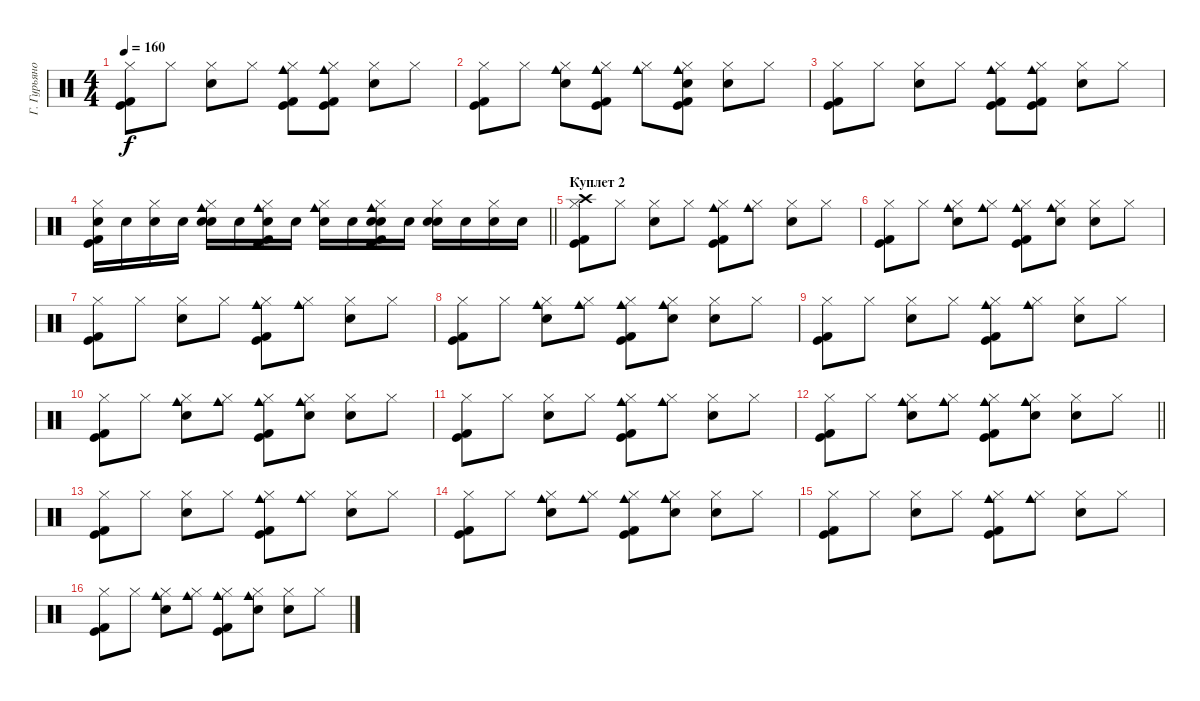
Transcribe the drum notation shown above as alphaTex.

\track ("Г. Гурьянов" "Г. Гурьяно") {instrument percussion}
\staff
\articulation defaults
\ts (4 4)
\tempo 160
\clef neutral
\ks c
("Hi-Hat (closed)" "Kick (hit)" "Kick (hit) 2").8{dy f} "Hi-Hat (closed)".8 ("Hi-Hat (closed)" "Snare (hit) 2").8 "Hi-Hat (closed)".8 ("Hi-Hat (closed)" "Cowbell medium (hit)" "Kick (hit)" "Kick (hit) 2").8 ("Hi-Hat (closed)" "Cowbell medium (hit)" "Kick (hit)" "Kick (hit) 2").8 ("Hi-Hat (closed)" "Snare (hit) 2").8 "Hi-Hat (closed)".8 |
("Hi-Hat (closed)" "Kick (hit)" "Kick (hit) 2").8 "Hi-Hat (closed)".8 ("Hi-Hat (closed)" "Cowbell medium (hit)" "Snare (hit) 2").8 ("Hi-Hat (closed)" "Cowbell medium (hit)" "Kick (hit)" "Kick (hit) 2").8 ("Hi-Hat (closed)" "Cowbell medium (hit)").8 ("Hi-Hat (closed)" "Cowbell medium (hit)" "Hand Clap (hit)" "Kick (hit)" "Kick (hit) 2").8 ("Hi-Hat (closed)" "Snare (hit) 2").8 "Hi-Hat (closed)".8 |
("Hi-Hat (closed)" "Kick (hit)" "Kick (hit) 2").8 "Hi-Hat (closed)".8 ("Hi-Hat (closed)" "Snare (hit) 2").8 "Hi-Hat (closed)".8 ("Hi-Hat (closed)" "Cowbell medium (hit)" "Kick (hit)" "Kick (hit) 2").8 ("Hi-Hat (closed)" "Cowbell medium (hit)" "Kick (hit)" "Kick (hit) 2").8 ("Hi-Hat (closed)" "Snare (hit) 2").8 "Hi-Hat (closed)".8 |
\barLineRight lightlight
("Hi-Hat (closed)" "Electric Snare (hit)" "Kick (hit)" "Kick (hit) 2").16 "Electric Snare (hit)".16 ("Hi-Hat (closed)" "Electric Snare (hit)").16 "Electric Snare (hit)".16 ("Hi-Hat (closed)" "Electric Snare (hit)" "Snare (hit) 2" "Cowbell medium (hit)").16 "Electric Snare (hit)".16 ("Hi-Hat (closed)" "Electric Snare (hit)" "Cowbell medium (hit)" "Kick (hit)" "Kick (hit) 2").16 "Electric Snare (hit)".16 ("Hi-Hat (closed)" "Electric Snare (hit)" "Cowbell medium (hit)").16 "Electric Snare (hit)".16 ("Hi-Hat (closed)" "Electric Snare (hit)" "Kick (hit)" "Cowbell medium (hit)" "Hand Clap (hit)" "Kick (hit) 2").16 "Electric Snare (hit)".16 ("Hi-Hat (closed)" "Electric Snare (hit)" "Snare (hit) 2").16 "Electric Snare (hit)".16 ("Hi-Hat (closed)" "Electric Snare (hit)").16 "Electric Snare (hit)".16 |
\section ("" "Куплет 2")
("Hi-Hat (closed)" "Crash high (hit)" "Kick (hit)" "Kick (hit) 2").8 "Hi-Hat (closed)".8 ("Hi-Hat (closed)" "Snare (hit) 2").8 "Hi-Hat (closed)".8 ("Hi-Hat (closed)" "Cowbell medium (hit)" "Kick (hit)" "Kick (hit) 2").8 ("Hi-Hat (closed)" "Cowbell medium (hit)").8 ("Hi-Hat (closed)" "Snare (hit) 2").8 "Hi-Hat (closed)".8 |
("Hi-Hat (closed)" "Kick (hit)" "Kick (hit) 2").8 "Hi-Hat (closed)".8 ("Hi-Hat (closed)" "Cowbell medium (hit)" "Snare (hit) 2").8 ("Hi-Hat (closed)" "Cowbell medium (hit)").8 ("Hi-Hat (closed)" "Cowbell medium (hit)" "Kick (hit)" "Kick (hit) 2").8 ("Hi-Hat (closed)" "Cowbell medium (hit)" "Hand Clap (hit)").8 ("Hi-Hat (closed)" "Snare (hit) 2").8 "Hi-Hat (closed)".8 |
("Hi-Hat (closed)" "Kick (hit)" "Kick (hit) 2").8 "Hi-Hat (closed)".8 ("Hi-Hat (closed)" "Snare (hit) 2").8 "Hi-Hat (closed)".8 ("Hi-Hat (closed)" "Cowbell medium (hit)" "Kick (hit)" "Kick (hit) 2").8 ("Hi-Hat (closed)" "Cowbell medium (hit)").8 ("Hi-Hat (closed)" "Snare (hit) 2").8 "Hi-Hat (closed)".8 |
("Hi-Hat (closed)" "Kick (hit)" "Kick (hit) 2").8 "Hi-Hat (closed)".8 ("Hi-Hat (closed)" "Cowbell medium (hit)" "Snare (hit) 2").8 ("Hi-Hat (closed)" "Cowbell medium (hit)").8 ("Hi-Hat (closed)" "Cowbell medium (hit)" "Kick (hit)" "Kick (hit) 2").8 ("Hi-Hat (closed)" "Cowbell medium (hit)" "Hand Clap (hit)").8 ("Hi-Hat (closed)" "Snare (hit) 2").8 "Hi-Hat (closed)".8 |
("Hi-Hat (closed)" "Kick (hit)" "Kick (hit) 2").8 "Hi-Hat (closed)".8 ("Hi-Hat (closed)" "Snare (hit) 2").8 "Hi-Hat (closed)".8 ("Hi-Hat (closed)" "Cowbell medium (hit)" "Kick (hit)" "Kick (hit) 2").8 ("Hi-Hat (closed)" "Cowbell medium (hit)").8 ("Hi-Hat (closed)" "Snare (hit) 2").8 "Hi-Hat (closed)".8 |
("Hi-Hat (closed)" "Kick (hit)" "Kick (hit) 2").8 "Hi-Hat (closed)".8 ("Hi-Hat (closed)" "Cowbell medium (hit)" "Snare (hit) 2").8 ("Hi-Hat (closed)" "Cowbell medium (hit)").8 ("Hi-Hat (closed)" "Cowbell medium (hit)" "Kick (hit)" "Kick (hit) 2").8 ("Hi-Hat (closed)" "Cowbell medium (hit)" "Hand Clap (hit)").8 ("Hi-Hat (closed)" "Snare (hit) 2").8 "Hi-Hat (closed)".8 |
("Hi-Hat (closed)" "Kick (hit)" "Kick (hit) 2").8 "Hi-Hat (closed)".8 ("Hi-Hat (closed)" "Snare (hit) 2").8 "Hi-Hat (closed)".8 ("Hi-Hat (closed)" "Cowbell medium (hit)" "Kick (hit)" "Kick (hit) 2").8 ("Hi-Hat (closed)" "Cowbell medium (hit)").8 ("Hi-Hat (closed)" "Snare (hit) 2").8 "Hi-Hat (closed)".8 |
\barLineRight lightlight
("Hi-Hat (closed)" "Kick (hit)" "Kick (hit) 2").8 "Hi-Hat (closed)".8 ("Hi-Hat (closed)" "Cowbell medium (hit)" "Snare (hit) 2").8 ("Hi-Hat (closed)" "Cowbell medium (hit)").8 ("Hi-Hat (closed)" "Cowbell medium (hit)" "Kick (hit)" "Kick (hit) 2").8 ("Hi-Hat (closed)" "Cowbell medium (hit)" "Hand Clap (hit)").8 ("Hi-Hat (closed)" "Snare (hit) 2").8 "Hi-Hat (closed)".8 |
("Hi-Hat (closed)" "Kick (hit)" "Kick (hit) 2").8 "Hi-Hat (closed)".8 ("Hi-Hat (closed)" "Snare (hit) 2").8 "Hi-Hat (closed)".8 ("Hi-Hat (closed)" "Cowbell medium (hit)" "Kick (hit)" "Kick (hit) 2").8 ("Hi-Hat (closed)" "Cowbell medium (hit)").8 ("Hi-Hat (closed)" "Snare (hit) 2").8 "Hi-Hat (closed)".8 |
("Hi-Hat (closed)" "Kick (hit)" "Kick (hit) 2").8 "Hi-Hat (closed)".8 ("Hi-Hat (closed)" "Cowbell medium (hit)" "Snare (hit) 2").8 ("Hi-Hat (closed)" "Cowbell medium (hit)").8 ("Hi-Hat (closed)" "Cowbell medium (hit)" "Kick (hit)" "Kick (hit) 2").8 ("Hi-Hat (closed)" "Cowbell medium (hit)" "Hand Clap (hit)").8 ("Hi-Hat (closed)" "Snare (hit) 2").8 "Hi-Hat (closed)".8 |
("Hi-Hat (closed)" "Kick (hit)" "Kick (hit) 2").8 "Hi-Hat (closed)".8 ("Hi-Hat (closed)" "Snare (hit) 2").8 "Hi-Hat (closed)".8 ("Hi-Hat (closed)" "Cowbell medium (hit)" "Kick (hit)" "Kick (hit) 2").8 ("Hi-Hat (closed)" "Cowbell medium (hit)").8 ("Hi-Hat (closed)" "Snare (hit) 2").8 "Hi-Hat (closed)".8 |
("Hi-Hat (closed)" "Kick (hit)" "Kick (hit) 2").8 "Hi-Hat (closed)".8 ("Hi-Hat (closed)" "Cowbell medium (hit)" "Snare (hit) 2").8 ("Hi-Hat (closed)" "Cowbell medium (hit)").8 ("Hi-Hat (closed)" "Cowbell medium (hit)" "Kick (hit)" "Kick (hit) 2").8 ("Hi-Hat (closed)" "Cowbell medium (hit)" "Hand Clap (hit)").8 ("Hi-Hat (closed)" "Snare (hit) 2").8 "Hi-Hat (closed)".8
